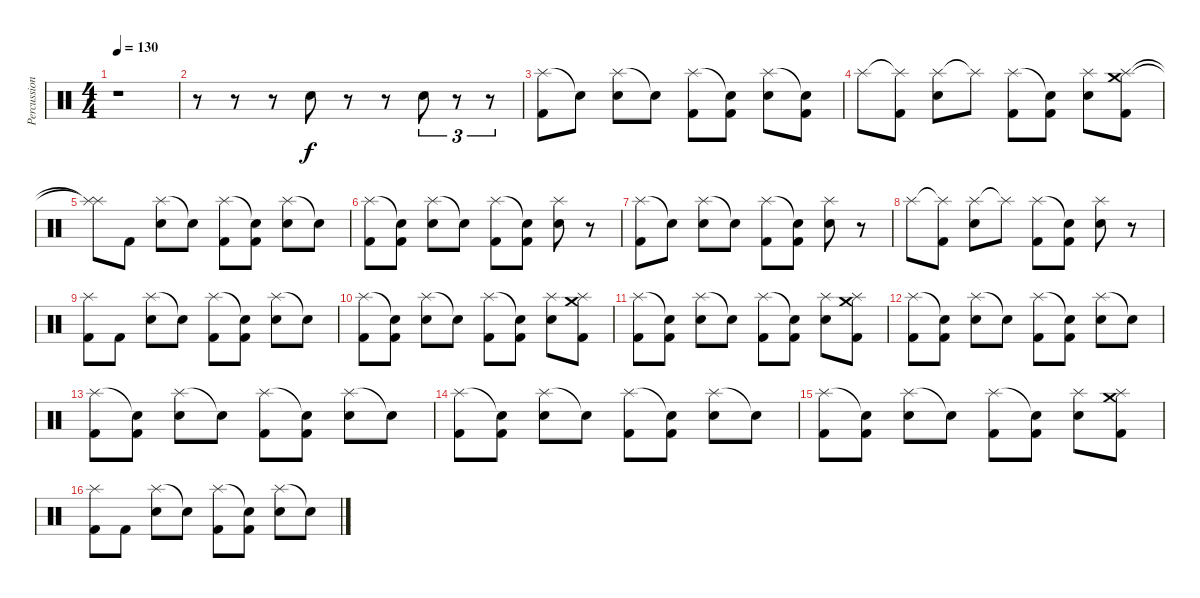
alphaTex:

\track ("Percussion" "Percussion") {instrument percussion}
\staff {score}
\articulation defaults
\ts (4 4)
\tempo 130
\clef neutral
\ks c
r.1{dy f} |
r.8 r.8 r.8 "Electric Snare (hit)".8 r.8 r.8 "Electric Snare (hit)".8{tu (3 2)} r.8{tu (3 2)} r.8{tu (3 2)} |
("Splash (hit)" "Kick (hit) 2").8 "Snare (hit)"{t}.8 ("Splash (hit)" "Electric Snare (hit)").8 "Snare (hit)"{t}.8 ("Splash (hit)" "Kick (hit) 2").8 ("Snare (hit)"{t} "Kick (hit) 2").8 ("Splash (hit)" "Electric Snare (hit)").8 ("Snare (hit)"{t} "Kick (hit) 2").8 |
"Splash (hit)".8 ("Splash (hit)"{t} "Kick (hit) 2").8 ("Splash (hit)" "Electric Snare (hit)").8 "Splash (hit)"{t}.8 ("Splash (hit)" "Kick (hit) 2").8 ("Snare (hit)"{t} "Kick (hit) 2").8 ("Splash (hit)" "Electric Snare (hit)").8 ("Crash medium (hit)" "Splash (hit)" "Kick (hit) 2").8 |
("Splash (hit)"{t} "Splash (hit)"{t}).8 "Kick (hit) 2".8 ("Splash (hit)" "Electric Snare (hit)").8 "Snare (hit)"{t}.8 ("Splash (hit)" "Kick (hit) 2").8 ("Snare (hit)"{t} "Kick (hit) 2").8 ("Splash (hit)" "Electric Snare (hit)").8 "Snare (hit)"{t}.8 |
("Splash (hit)" "Kick (hit) 2").8 ("Snare (hit)"{t} "Kick (hit) 2").8 ("Splash (hit)" "Electric Snare (hit)").8 "Snare (hit)"{t}.8 ("Splash (hit)" "Kick (hit) 2").8 ("Snare (hit)"{t} "Kick (hit) 2").8 ("Splash (hit)" "Electric Snare (hit)").8 r.8 |
("Splash (hit)" "Kick (hit) 2").8 "Snare (hit)"{t}.8 ("Splash (hit)" "Electric Snare (hit)").8 "Snare (hit)"{t}.8 ("Splash (hit)" "Kick (hit) 2").8 ("Snare (hit)"{t} "Kick (hit) 2").8 ("Splash (hit)" "Electric Snare (hit)").8 r.8 |
"Splash (hit)".8 ("Splash (hit)"{t} "Kick (hit) 2").8 ("Splash (hit)" "Electric Snare (hit)").8 "Splash (hit)"{t}.8 ("Splash (hit)" "Kick (hit) 2").8 ("Snare (hit)"{t} "Kick (hit) 2").8 ("Splash (hit)" "Electric Snare (hit)").8 r.8 |
("Splash (hit)" "Kick (hit) 2").8 "Kick (hit) 2".8 ("Splash (hit)" "Electric Snare (hit)").8 "Snare (hit)"{t}.8 ("Splash (hit)" "Kick (hit) 2").8 ("Snare (hit)"{t} "Kick (hit) 2").8 ("Splash (hit)" "Electric Snare (hit)").8 "Snare (hit)"{t}.8 |
("Splash (hit)" "Kick (hit) 2").8 ("Snare (hit)"{t} "Kick (hit) 2").8 ("Splash (hit)" "Electric Snare (hit)").8 "Snare (hit)"{t}.8 ("Splash (hit)" "Kick (hit) 2").8 ("Snare (hit)"{t} "Kick (hit) 2").8 ("Splash (hit)" "Electric Snare (hit)").8 ("Crash medium (hit)" "Splash (hit)" "Kick (hit) 2").8 |
("Splash (hit)" "Kick (hit) 2").8 ("Snare (hit)"{t} "Kick (hit) 2").8 ("Splash (hit)" "Electric Snare (hit)").8 "Snare (hit)"{t}.8 ("Splash (hit)" "Kick (hit) 2").8 ("Snare (hit)"{t} "Kick (hit) 2").8 ("Splash (hit)" "Electric Snare (hit)").8 ("Crash medium (hit)" "Splash (hit)" "Kick (hit) 2").8 |
("Splash (hit)" "Kick (hit) 2").8 ("Snare (hit)"{t} "Kick (hit) 2").8 ("Splash (hit)" "Electric Snare (hit)").8 "Snare (hit)"{t}.8 ("Splash (hit)" "Kick (hit) 2").8 ("Snare (hit)"{t} "Kick (hit) 2").8 ("Splash (hit)" "Electric Snare (hit)").8 "Snare (hit)"{t}.8 |
("Splash (hit)" "Kick (hit) 2").8 ("Snare (hit)"{t} "Kick (hit) 2").8 ("Splash (hit)" "Electric Snare (hit)").8 "Snare (hit)"{t}.8 ("Splash (hit)" "Kick (hit) 2").8 ("Snare (hit)"{t} "Kick (hit) 2").8 ("Splash (hit)" "Electric Snare (hit)").8 "Snare (hit)"{t}.8 |
("Splash (hit)" "Kick (hit) 2").8 ("Snare (hit)"{t} "Kick (hit) 2").8 ("Splash (hit)" "Electric Snare (hit)").8 "Snare (hit)"{t}.8 ("Splash (hit)" "Kick (hit) 2").8 ("Snare (hit)"{t} "Kick (hit) 2").8 ("Splash (hit)" "Electric Snare (hit)").8 "Snare (hit)"{t}.8 |
("Splash (hit)" "Kick (hit) 2").8 ("Snare (hit)"{t} "Kick (hit) 2").8 ("Splash (hit)" "Electric Snare (hit)").8 "Snare (hit)"{t}.8 ("Splash (hit)" "Kick (hit) 2").8 ("Snare (hit)"{t} "Kick (hit) 2").8 ("Splash (hit)" "Electric Snare (hit)").8 ("Crash medium (hit)" "Splash (hit)" "Kick (hit) 2").8 |
("Splash (hit)" "Kick (hit) 2").8 "Kick (hit) 2".8 ("Splash (hit)" "Electric Snare (hit)").8 "Snare (hit)"{t}.8 ("Splash (hit)" "Kick (hit) 2").8 ("Snare (hit)"{t} "Kick (hit) 2").8 ("Splash (hit)" "Electric Snare (hit)").8 "Snare (hit)"{t}.8
